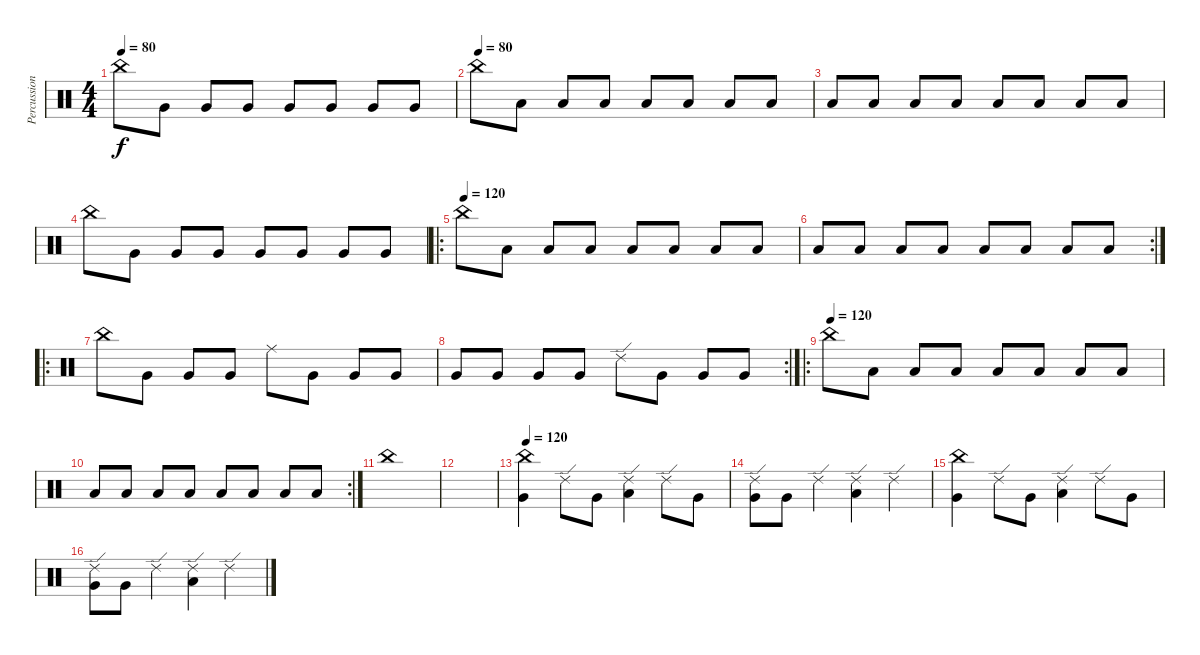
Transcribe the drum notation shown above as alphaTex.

\track ("Percussion" "Percussion") {instrument percussion}
\staff {score}
\articulation defaults
\ts (4 4)
\tempo 80
\clef neutral
\ks c "China (hit)".8{dy f} "Very Low Tom (hit)".8 "Very Low Tom (hit)".8 "Very Low Tom (hit)".8 "Very Low Tom (hit)".8 "Very Low Tom (hit)".8 "Very Low Tom (hit)".8 "Very Low Tom (hit)".8
|
\tempo (80)
"China (hit)".8 "Low Floor Tom (hit)".8 "Low Floor Tom (hit)".8 "Low Floor Tom (hit)".8 "Low Floor Tom (hit)".8 "Low Floor Tom (hit)".8 "Low Floor Tom (hit)".8 "Low Floor Tom (hit)".8 |
"Low Floor Tom (hit)".8 "Low Floor Tom (hit)".8 "Low Floor Tom (hit)".8 "Low Floor Tom (hit)".8 "Low Floor Tom (hit)".8 "Low Floor Tom (hit)".8 "Low Floor Tom (hit)".8 "Low Floor Tom (hit)".8 |
"China (hit)".8 "Very Low Tom (hit)".8 "Very Low Tom (hit)".8 "Very Low Tom (hit)".8 "Very Low Tom (hit)".8 "Very Low Tom (hit)".8 "Very Low Tom (hit)".8 "Very Low Tom (hit)".8 |
\ro
\tempo (120)
"China (hit)".8 "Low Floor Tom (hit)".8 "Low Floor Tom (hit)".8 "Low Floor Tom (hit)".8 "Low Floor Tom (hit)".8 "Low Floor Tom (hit)".8 "Low Floor Tom (hit)".8 "Low Floor Tom (hit)".8 |
\rc 2 "Low Floor Tom (hit)".8 "Low Floor Tom (hit)".8 "Low Floor Tom (hit)".8 "Low Floor Tom (hit)".8 "Low Floor Tom (hit)".8 "Low Floor Tom (hit)".8 "Low Floor Tom (hit)".8 "Low Floor Tom (hit)".8
|
\ro "China (hit)".8 "Very Low Tom (hit)".8 "Very Low Tom (hit)".8 "Very Low Tom (hit)".8 "Ride (middle)".8 "Very Low Tom (hit)".8 "Very Low Tom (hit)".8 "Very Low Tom (hit)".8
|
\rc 2 "Very Low Tom (hit)".8 "Very Low Tom (hit)".8 "Very Low Tom (hit)".8 "Very Low Tom (hit)".8 "Ride (edge) 2".8 "Very Low Tom (hit)".8 "Very Low Tom (hit)".8 "Very Low Tom (hit)".8
|
\ro
\tempo (120)
"China (hit)".8 "Low Floor Tom (hit)".8 "Low Floor Tom (hit)".8 "Low Floor Tom (hit)".8 "Low Floor Tom (hit)".8 "Low Floor Tom (hit)".8 "Low Floor Tom (hit)".8 "Low Floor Tom (hit)".8 |
\rc 2 "Low Floor Tom (hit)".8 "Low Floor Tom (hit)".8 "Low Floor Tom (hit)".8 "Low Floor Tom (hit)".8 "Low Floor Tom (hit)".8 "Low Floor Tom (hit)".8 "Low Floor Tom (hit)".8 "Low Floor Tom (hit)".8
|
"China (hit)".1 |
|
\tempo 120
("China (hit)" "Very Low Tom (hit)").4 "Ride (edge) 2".8 "Very Low Tom (hit)".8 ("Low Floor Tom (hit)" "Ride (edge) 2").4 "Ride (edge) 2".8 "Very Low Tom (hit)".8 |
("Ride (edge) 2" "Very Low Tom (hit)").8 "Very Low Tom (hit)".8 "Ride (edge) 2".4 ("Ride (edge) 2" "Low Floor Tom (hit)").4 "Ride (edge) 2".4 |
("China (hit)" "Very Low Tom (hit)").4 "Ride (edge) 2".8 "Very Low Tom (hit)".8 ("Ride (edge) 2" "Low Floor Tom (hit)").4 "Ride (edge) 2".8 "Very Low Tom (hit)".8 |
("Ride (edge) 2" "Very Low Tom (hit)").8 "Very Low Tom (hit)".8 "Ride (edge) 2".4 ("Ride (edge) 2" "Low Floor Tom (hit)").4 "Ride (edge) 2".4
